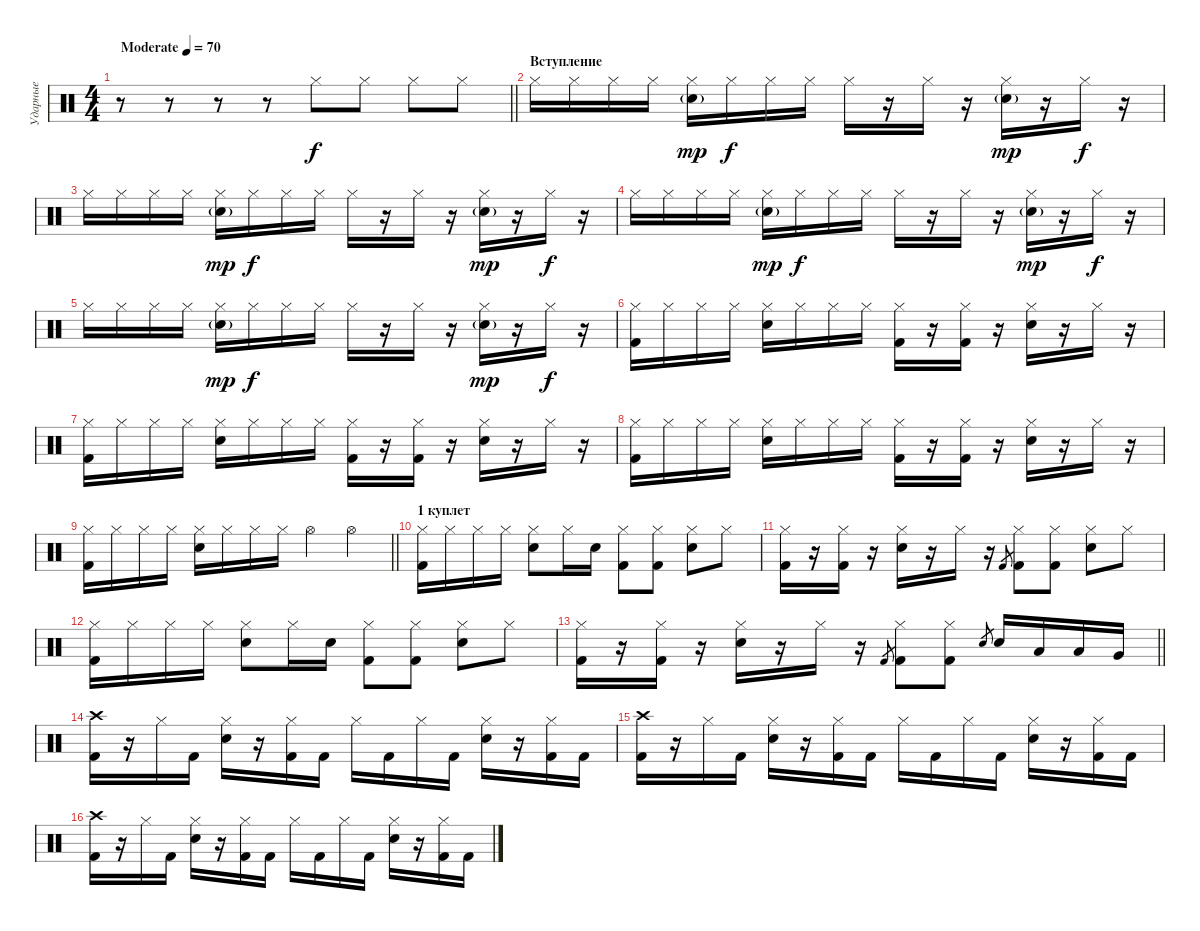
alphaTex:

\track ("Ударные" "Ударные") {instrument percussion}
\staff {score}
\articulation defaults
\ts (4 4)
\tempo (70 "Moderate")
\clef neutral
\barLineRight lightlight
\ks c
r.8{dy f} r.8 r.8 r.8 "Hi-Hat (closed)".8 "Hi-Hat (closed)".8 "Hi-Hat (closed)".8 "Hi-Hat (closed)".8 |
\section ("" "Вступление")
"Hi-Hat (closed)".16 "Hi-Hat (closed)".16 "Hi-Hat (closed)".16 "Hi-Hat (closed)".16 ("Hi-Hat (closed)" "Snare (hit) 2"{g}).16{dy mp} "Hi-Hat (closed)".16{dy f} "Hi-Hat (closed)".16 "Hi-Hat (closed)".16 "Hi-Hat (closed)".16 r.16 "Hi-Hat (closed)".16 r.16 ("Hi-Hat (closed)" "Snare (hit) 2"{g}).16{dy mp} r.16 "Hi-Hat (closed)".16{dy f} r.16 |
"Hi-Hat (closed)".16 "Hi-Hat (closed)".16 "Hi-Hat (closed)".16 "Hi-Hat (closed)".16 ("Hi-Hat (closed)" "Snare (hit) 2"{g}).16{dy mp} "Hi-Hat (closed)".16{dy f} "Hi-Hat (closed)".16 "Hi-Hat (closed)".16 "Hi-Hat (closed)".16 r.16 "Hi-Hat (closed)".16 r.16 ("Hi-Hat (closed)" "Snare (hit) 2"{g}).16{dy mp} r.16 "Hi-Hat (closed)".16{dy f} r.16 |
"Hi-Hat (closed)".16 "Hi-Hat (closed)".16 "Hi-Hat (closed)".16 "Hi-Hat (closed)".16 ("Hi-Hat (closed)" "Snare (hit) 2"{g}).16{dy mp} "Hi-Hat (closed)".16{dy f} "Hi-Hat (closed)".16 "Hi-Hat (closed)".16 "Hi-Hat (closed)".16 r.16 "Hi-Hat (closed)".16 r.16 ("Hi-Hat (closed)" "Snare (hit) 2"{g}).16{dy mp} r.16 "Hi-Hat (closed)".16{dy f} r.16 |
"Hi-Hat (closed)".16 "Hi-Hat (closed)".16 "Hi-Hat (closed)".16 "Hi-Hat (closed)".16 ("Hi-Hat (closed)" "Snare (hit) 2"{g}).16{dy mp} "Hi-Hat (closed)".16{dy f} "Hi-Hat (closed)".16 "Hi-Hat (closed)".16 "Hi-Hat (closed)".16 r.16 "Hi-Hat (closed)".16 r.16 ("Hi-Hat (closed)" "Snare (hit) 2"{g}).16{dy mp} r.16 "Hi-Hat (closed)".16{dy f} r.16 |
("Hi-Hat (closed)" "Kick (hit) 2").16 "Hi-Hat (closed)".16 "Hi-Hat (closed)".16 "Hi-Hat (closed)".16 ("Hi-Hat (closed)" "Snare (hit) 2").16 "Hi-Hat (closed)".16 "Hi-Hat (closed)".16 "Hi-Hat (closed)".16 ("Hi-Hat (closed)" "Kick (hit) 2").16 r.16 ("Hi-Hat (closed)" "Kick (hit) 2").16 r.16 ("Hi-Hat (closed)" "Snare (hit) 2").16 r.16 "Hi-Hat (closed)".16 r.16 |
("Hi-Hat (closed)" "Kick (hit) 2").16 "Hi-Hat (closed)".16 "Hi-Hat (closed)".16 "Hi-Hat (closed)".16 ("Hi-Hat (closed)" "Snare (hit) 2").16 "Hi-Hat (closed)".16 "Hi-Hat (closed)".16 "Hi-Hat (closed)".16 ("Hi-Hat (closed)" "Kick (hit) 2").16 r.16 ("Hi-Hat (closed)" "Kick (hit) 2").16 r.16 ("Hi-Hat (closed)" "Snare (hit) 2").16 r.16 "Hi-Hat (closed)".16 r.16 |
("Hi-Hat (closed)" "Kick (hit) 2").16 "Hi-Hat (closed)".16 "Hi-Hat (closed)".16 "Hi-Hat (closed)".16 ("Hi-Hat (closed)" "Snare (hit) 2").16 "Hi-Hat (closed)".16 "Hi-Hat (closed)".16 "Hi-Hat (closed)".16 ("Hi-Hat (closed)" "Kick (hit) 2").16 r.16 ("Hi-Hat (closed)" "Kick (hit) 2").16 r.16 ("Hi-Hat (closed)" "Snare (hit) 2").16 r.16 "Hi-Hat (closed)".16 r.16 |
\barLineRight lightlight
("Hi-Hat (closed)" "Kick (hit) 2").16 "Hi-Hat (closed)".16 "Hi-Hat (closed)".16 "Hi-Hat (closed)".16 ("Hi-Hat (closed)" "Snare (hit) 2").16 "Hi-Hat (closed)".16 "Hi-Hat (closed)".16 "Hi-Hat (closed)".16 "Hi-Hat (open)".4 "Hi-Hat (open)".4 |
\section ("" "1 куплет")
("Hi-Hat (closed)" "Kick (hit) 2").16 "Hi-Hat (closed)".16 "Hi-Hat (closed)".16 "Hi-Hat (closed)".16 ("Hi-Hat (closed)" "Snare (hit) 2").8 "Hi-Hat (closed)".16 "Snare (hit) 2".16 ("Hi-Hat (closed)" "Kick (hit) 2").8 ("Hi-Hat (closed)" "Kick (hit) 2").8 ("Hi-Hat (closed)" "Snare (hit) 2").8 "Hi-Hat (closed)".8 |
("Hi-Hat (closed)" "Kick (hit) 2").16 r.16 ("Hi-Hat (closed)" "Kick (hit) 2").16 r.16 ("Hi-Hat (closed)" "Snare (hit) 2").16 r.16 "Hi-Hat (closed)".16 r.16 "Kick (hit) 2".8{gr} ("Hi-Hat (closed)" "Kick (hit) 2").8 ("Hi-Hat (closed)" "Kick (hit) 2").8 ("Hi-Hat (closed)" "Snare (hit) 2").8 "Hi-Hat (closed)".8 |
("Hi-Hat (closed)" "Kick (hit) 2").16 "Hi-Hat (closed)".16 "Hi-Hat (closed)".16 "Hi-Hat (closed)".16 ("Hi-Hat (closed)" "Snare (hit) 2").8 "Hi-Hat (closed)".16 "Snare (hit) 2".16 ("Hi-Hat (closed)" "Kick (hit) 2").8 ("Hi-Hat (closed)" "Kick (hit) 2").8 ("Hi-Hat (closed)" "Snare (hit) 2").8 "Hi-Hat (closed)".8 |
\barLineRight lightlight
("Hi-Hat (closed)" "Kick (hit) 2").16 r.16 ("Hi-Hat (closed)" "Kick (hit) 2").16 r.16 ("Hi-Hat (closed)" "Snare (hit) 2").16 r.16 "Hi-Hat (closed)".16 r.16 "Kick (hit) 2".8{gr} ("Hi-Hat (closed)" "Kick (hit) 2").8 ("Hi-Hat (closed)" "Kick (hit) 2").8 "Snare (hit) 2".8{gr} "Snare (hit) 2".16 "Low Tom (hit)".16 "Low Tom (hit)".16 "Very Low Tom (hit)".16 |
\section ("" "")
("Crash high (hit)" "Kick (hit) 2").16 r.16 "Hi-Hat (closed)".16 "Kick (hit) 2".16 ("Hi-Hat (closed)" "Snare (hit) 2").16 r.16 ("Hi-Hat (closed)" "Kick (hit) 2").16 "Kick (hit) 2".16 "Hi-Hat (closed)".16 "Kick (hit) 2".16 "Hi-Hat (closed)".16 "Kick (hit) 2".16 ("Hi-Hat (closed)" "Snare (hit) 2").16 r.16 ("Hi-Hat (closed)" "Kick (hit) 2").16 "Kick (hit) 2".16 |
("Crash high (hit)" "Kick (hit) 2").16 r.16 "Hi-Hat (closed)".16 "Kick (hit) 2".16 ("Hi-Hat (closed)" "Snare (hit) 2").16 r.16 ("Hi-Hat (closed)" "Kick (hit) 2").16 "Kick (hit) 2".16 "Hi-Hat (closed)".16 "Kick (hit) 2".16 "Hi-Hat (closed)".16 "Kick (hit) 2".16 ("Hi-Hat (closed)" "Snare (hit) 2").16 r.16 ("Hi-Hat (closed)" "Kick (hit) 2").16 "Kick (hit) 2".16 |
("Crash high (hit)" "Kick (hit) 2").16 r.16 "Hi-Hat (closed)".16 "Kick (hit) 2".16 ("Hi-Hat (closed)" "Snare (hit) 2").16 r.16 ("Hi-Hat (closed)" "Kick (hit) 2").16 "Kick (hit) 2".16 "Hi-Hat (closed)".16 "Kick (hit) 2".16 "Hi-Hat (closed)".16 "Kick (hit) 2".16 ("Hi-Hat (closed)" "Snare (hit) 2").16 r.16 ("Hi-Hat (closed)" "Kick (hit) 2").16 "Kick (hit) 2".16
